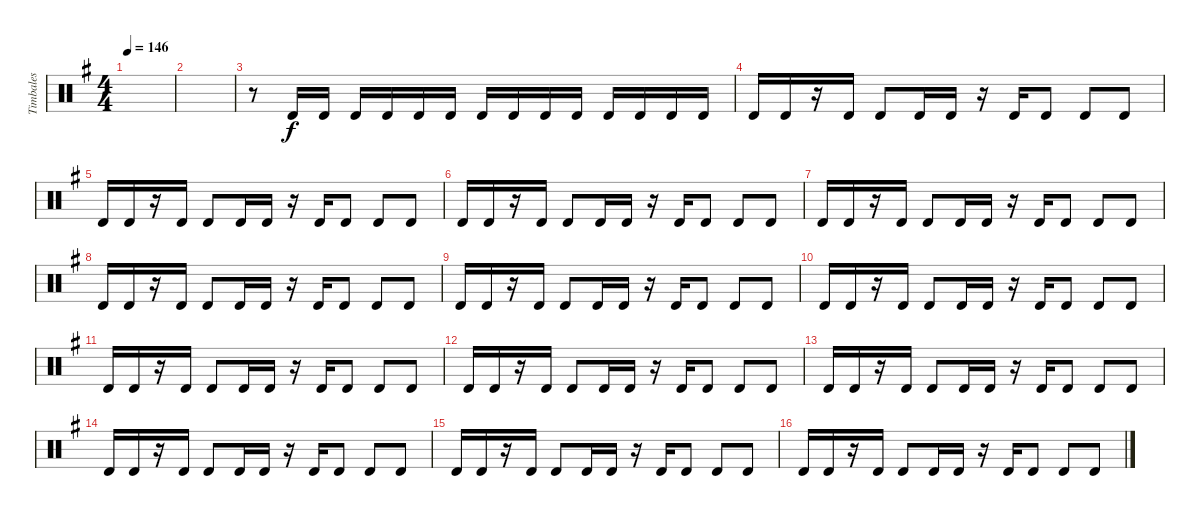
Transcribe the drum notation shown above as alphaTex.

\track ("Timbales" "Timbales") {instrument percussion}
\staff {score}
\articulation defaults
\ts (4 4)
\tempo 146
\clef neutral
\ks g
|
|
r.8 "Timbale high (hit)".16 "Timbale high (hit)".16 "Timbale high (hit)".16 "Timbale high (hit)".16 "Timbale high (hit)".16 "Timbale high (hit)".16 "Timbale high (hit)".16 "Timbale high (hit)".16 "Timbale high (hit)".16 "Timbale high (hit)".16 "Timbale high (hit)".16 "Timbale high (hit)".16 "Timbale high (hit)".16 "Timbale high (hit)".16 |
"Timbale high (hit)".16 "Timbale high (hit)".16 r.16 "Timbale high (hit)".16 "Timbale high (hit)".8 "Timbale high (hit)".16 "Timbale high (hit)".16 r.16 "Timbale high (hit)".16 "Timbale high (hit)".8 "Timbale high (hit)".8 "Timbale high (hit)".8 |
"Timbale high (hit)".16 "Timbale high (hit)".16 r.16 "Timbale high (hit)".16 "Timbale high (hit)".8 "Timbale high (hit)".16 "Timbale high (hit)".16 r.16 "Timbale high (hit)".16 "Timbale high (hit)".8 "Timbale high (hit)".8 "Timbale high (hit)".8 |
"Timbale high (hit)".16 "Timbale high (hit)".16 r.16 "Timbale high (hit)".16 "Timbale high (hit)".8 "Timbale high (hit)".16 "Timbale high (hit)".16 r.16 "Timbale high (hit)".16 "Timbale high (hit)".8 "Timbale high (hit)".8 "Timbale high (hit)".8 |
"Timbale high (hit)".16 "Timbale high (hit)".16 r.16 "Timbale high (hit)".16 "Timbale high (hit)".8 "Timbale high (hit)".16 "Timbale high (hit)".16 r.16 "Timbale high (hit)".16 "Timbale high (hit)".8 "Timbale high (hit)".8 "Timbale high (hit)".8 |
"Timbale high (hit)".16 "Timbale high (hit)".16 r.16 "Timbale high (hit)".16 "Timbale high (hit)".8 "Timbale high (hit)".16 "Timbale high (hit)".16 r.16 "Timbale high (hit)".16 "Timbale high (hit)".8 "Timbale high (hit)".8 "Timbale high (hit)".8 |
"Timbale high (hit)".16 "Timbale high (hit)".16 r.16 "Timbale high (hit)".16 "Timbale high (hit)".8 "Timbale high (hit)".16 "Timbale high (hit)".16 r.16 "Timbale high (hit)".16 "Timbale high (hit)".8 "Timbale high (hit)".8 "Timbale high (hit)".8 |
"Timbale high (hit)".16 "Timbale high (hit)".16 r.16 "Timbale high (hit)".16 "Timbale high (hit)".8 "Timbale high (hit)".16 "Timbale high (hit)".16 r.16 "Timbale high (hit)".16 "Timbale high (hit)".8 "Timbale high (hit)".8 "Timbale high (hit)".8 |
"Timbale high (hit)".16 "Timbale high (hit)".16 r.16 "Timbale high (hit)".16 "Timbale high (hit)".8 "Timbale high (hit)".16 "Timbale high (hit)".16 r.16 "Timbale high (hit)".16 "Timbale high (hit)".8 "Timbale high (hit)".8 "Timbale high (hit)".8 |
"Timbale high (hit)".16 "Timbale high (hit)".16 r.16 "Timbale high (hit)".16 "Timbale high (hit)".8 "Timbale high (hit)".16 "Timbale high (hit)".16 r.16 "Timbale high (hit)".16 "Timbale high (hit)".8 "Timbale high (hit)".8 "Timbale high (hit)".8 |
"Timbale high (hit)".16 "Timbale high (hit)".16 r.16 "Timbale high (hit)".16 "Timbale high (hit)".8 "Timbale high (hit)".16 "Timbale high (hit)".16 r.16 "Timbale high (hit)".16 "Timbale high (hit)".8 "Timbale high (hit)".8 "Timbale high (hit)".8 |
"Timbale high (hit)".16 "Timbale high (hit)".16 r.16 "Timbale high (hit)".16 "Timbale high (hit)".8 "Timbale high (hit)".16 "Timbale high (hit)".16 r.16 "Timbale high (hit)".16 "Timbale high (hit)".8 "Timbale high (hit)".8 "Timbale high (hit)".8 |
"Timbale high (hit)".16 "Timbale high (hit)".16 r.16 "Timbale high (hit)".16 "Timbale high (hit)".8 "Timbale high (hit)".16 "Timbale high (hit)".16 r.16 "Timbale high (hit)".16 "Timbale high (hit)".8 "Timbale high (hit)".8 "Timbale high (hit)".8 |
"Timbale high (hit)".16 "Timbale high (hit)".16 r.16 "Timbale high (hit)".16 "Timbale high (hit)".8 "Timbale high (hit)".16 "Timbale high (hit)".16 r.16 "Timbale high (hit)".16 "Timbale high (hit)".8 "Timbale high (hit)".8 "Timbale high (hit)".8
